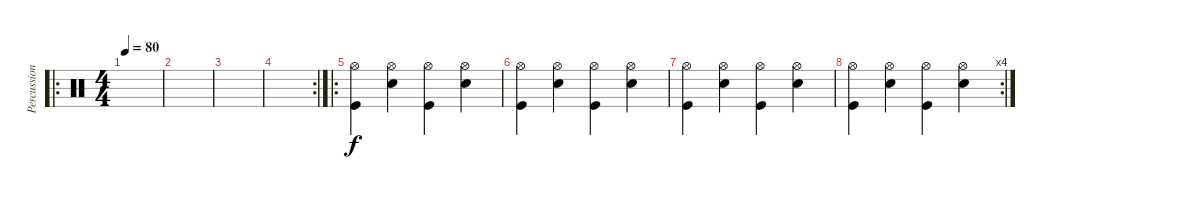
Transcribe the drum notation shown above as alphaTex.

\track ("Percussion" "Percussion") {instrument percussion}
\staff {score}
\articulation defaults
\ro
\ts (4 4)
\tempo 80
\clef neutral
\ks c
|
|
|
\rc 2
|
\ro
("Hi-Hat (open)" "Kick (hit)").4 ("Hi-Hat (open)" "Electric Snare (hit)").4 ("Hi-Hat (open)" "Kick (hit)").4 ("Hi-Hat (open)" "Electric Snare (hit)").4 |
("Hi-Hat (open)" "Kick (hit)").4 ("Hi-Hat (open)" "Electric Snare (hit)").4 ("Hi-Hat (open)" "Kick (hit)").4 ("Hi-Hat (open)" "Electric Snare (hit)").4 |
("Hi-Hat (open)" "Kick (hit)").4 ("Hi-Hat (open)" "Electric Snare (hit)").4 ("Hi-Hat (open)" "Kick (hit)").4 ("Hi-Hat (open)" "Electric Snare (hit)").4 |
\rc 4
("Hi-Hat (open)" "Kick (hit)").4 ("Hi-Hat (open)" "Electric Snare (hit)").4 ("Hi-Hat (open)" "Kick (hit)").4 ("Hi-Hat (open)" "Electric Snare (hit)").4
